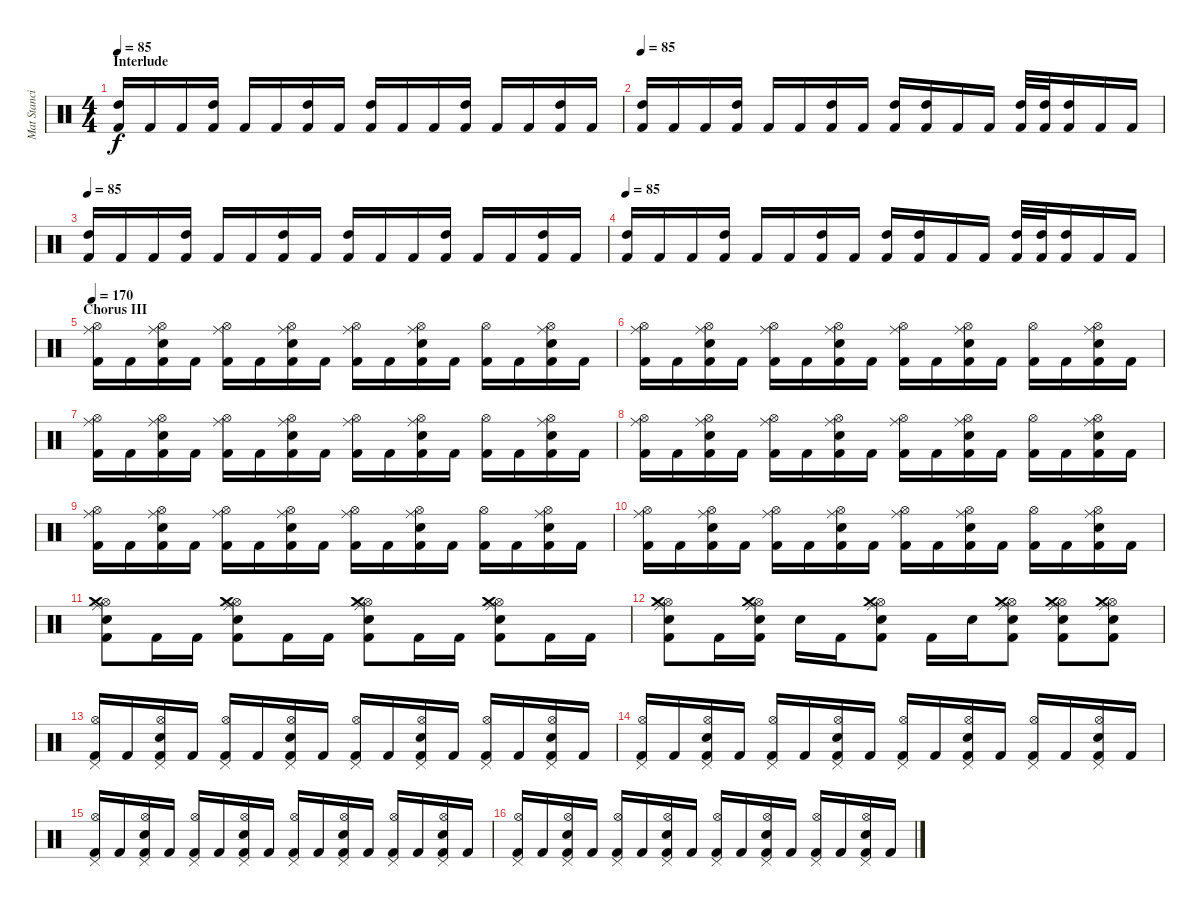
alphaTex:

\track ("Mat Stancioiu" "Mat Stanci") {instrument percussion}
\staff {score}
\articulation defaults
\ts (4 4)
\section ("" "Interlude")
\tempo 85
\clef neutral
\ks c
("High Tom (hit)" "Kick (hit) 2").16{dy f volume 10} "Kick (hit) 2".16 "Kick (hit) 2".16 ("High Tom (hit)" "Kick (hit) 2").16 "Kick (hit) 2".16 "Kick (hit) 2".16 ("High Tom (hit)" "Kick (hit) 2").16 "Kick (hit) 2".16 ("High Tom (hit)" "Kick (hit) 2").16 "Kick (hit) 2".16 "Kick (hit) 2".16 ("High Tom (hit)" "Kick (hit) 2").16 "Kick (hit) 2".16 "Kick (hit) 2".16 ("High Tom (hit)" "Kick (hit) 2").16 "Kick (hit) 2".16 |
\tempo 85
("High Tom (hit)" "Kick (hit) 2").16{volume 10} "Kick (hit) 2".16 "Kick (hit) 2".16 ("High Tom (hit)" "Kick (hit) 2").16 "Kick (hit) 2".16 "Kick (hit) 2".16 ("High Tom (hit)" "Kick (hit) 2").16 "Kick (hit) 2".16 ("High Tom (hit)" "Kick (hit) 2").16 ("High Tom (hit)" "Kick (hit) 2").16 "Kick (hit) 2".16 "Kick (hit) 2".16 ("High Tom (hit)" "Kick (hit) 2").32 ("High Tom (hit)" "Kick (hit) 2").32 ("High Tom (hit)" "Kick (hit) 2").16 "Kick (hit) 2".16 "Kick (hit) 2".16 |
\tempo 85
("High Tom (hit)" "Kick (hit) 2").16 "Kick (hit) 2".16 "Kick (hit) 2".16 ("High Tom (hit)" "Kick (hit) 2").16 "Kick (hit) 2".16 "Kick (hit) 2".16 ("High Tom (hit)" "Kick (hit) 2").16 "Kick (hit) 2".16 ("High Tom (hit)" "Kick (hit) 2").16 "Kick (hit) 2".16 "Kick (hit) 2".16 ("High Tom (hit)" "Kick (hit) 2").16 "Kick (hit) 2".16 "Kick (hit) 2".16 ("High Tom (hit)" "Kick (hit) 2").16 "Kick (hit) 2".16 |
\tempo 85
("High Tom (hit)" "Kick (hit) 2").16 "Kick (hit) 2".16 "Kick (hit) 2".16 ("High Tom (hit)" "Kick (hit) 2").16 "Kick (hit) 2".16 "Kick (hit) 2".16 ("High Tom (hit)" "Kick (hit) 2").16 "Kick (hit) 2".16 ("High Tom (hit)" "Kick (hit) 2").16 ("High Tom (hit)" "Kick (hit) 2").16 "Kick (hit) 2".16 "Kick (hit) 2".16 ("High Tom (hit)" "Kick (hit) 2").32 ("High Tom (hit)" "Kick (hit) 2").32 ("High Tom (hit)" "Kick (hit) 2").16 "Kick (hit) 2".16 "Kick (hit) 2".16 |
\section ("" "Chorus III")
\tempo 170
("Hi-Hat (open)" "Kick (hit) 2" "Ride (middle)").16 "Kick (hit) 2".16 ("Electric Snare (hit)" "Hi-Hat (open)" "Kick (hit) 2" "Ride (middle)").16 "Kick (hit) 2".16 ("Hi-Hat (open)" "Kick (hit) 2" "Ride (middle)").16 "Kick (hit) 2".16 ("Electric Snare (hit)" "Hi-Hat (open)" "Kick (hit) 2" "Ride (middle)").16 "Kick (hit) 2".16 ("Hi-Hat (open)" "Kick (hit) 2" "Ride (middle)").16 "Kick (hit) 2".16 ("Electric Snare (hit)" "Hi-Hat (open)" "Kick (hit) 2" "Ride (middle)").16 "Kick (hit) 2".16 ("Hi-Hat (open)" "Kick (hit) 2").16 "Kick (hit) 2".16 ("Electric Snare (hit)" "Hi-Hat (open)" "Kick (hit) 2" "Ride (middle)").16 "Kick (hit) 2".16 |
("Hi-Hat (open)" "Kick (hit) 2" "Ride (middle)").16 "Kick (hit) 2".16 ("Electric Snare (hit)" "Hi-Hat (open)" "Kick (hit) 2" "Ride (middle)").16 "Kick (hit) 2".16 ("Hi-Hat (open)" "Kick (hit) 2" "Ride (middle)").16 "Kick (hit) 2".16 ("Electric Snare (hit)" "Hi-Hat (open)" "Kick (hit) 2" "Ride (middle)").16 "Kick (hit) 2".16 ("Hi-Hat (open)" "Kick (hit) 2" "Ride (middle)").16 "Kick (hit) 2".16 ("Electric Snare (hit)" "Hi-Hat (open)" "Kick (hit) 2" "Ride (middle)").16 "Kick (hit) 2".16 ("Hi-Hat (open)" "Kick (hit) 2").16 "Kick (hit) 2".16 ("Electric Snare (hit)" "Hi-Hat (open)" "Kick (hit) 2" "Ride (middle)").16 "Kick (hit) 2".16 |
("Hi-Hat (open)" "Kick (hit) 2" "Ride (middle)").16 "Kick (hit) 2".16 ("Electric Snare (hit)" "Hi-Hat (open)" "Kick (hit) 2" "Ride (middle)").16 "Kick (hit) 2".16 ("Hi-Hat (open)" "Kick (hit) 2" "Ride (middle)").16 "Kick (hit) 2".16 ("Electric Snare (hit)" "Hi-Hat (open)" "Kick (hit) 2" "Ride (middle)").16 "Kick (hit) 2".16 ("Hi-Hat (open)" "Kick (hit) 2" "Ride (middle)").16 "Kick (hit) 2".16 ("Electric Snare (hit)" "Hi-Hat (open)" "Kick (hit) 2" "Ride (middle)").16 "Kick (hit) 2".16 ("Hi-Hat (open)" "Kick (hit) 2").16 "Kick (hit) 2".16 ("Electric Snare (hit)" "Hi-Hat (open)" "Kick (hit) 2" "Ride (middle)").16 "Kick (hit) 2".16 |
("Hi-Hat (open)" "Kick (hit) 2" "Ride (middle)").16 "Kick (hit) 2".16 ("Electric Snare (hit)" "Hi-Hat (open)" "Kick (hit) 2" "Ride (middle)").16 "Kick (hit) 2".16 ("Hi-Hat (open)" "Kick (hit) 2" "Ride (middle)").16 "Kick (hit) 2".16 ("Electric Snare (hit)" "Hi-Hat (open)" "Kick (hit) 2" "Ride (middle)").16 "Kick (hit) 2".16 ("Hi-Hat (open)" "Kick (hit) 2" "Ride (middle)").16 "Kick (hit) 2".16 ("Electric Snare (hit)" "Hi-Hat (open)" "Kick (hit) 2" "Ride (middle)").16 "Kick (hit) 2".16 ("Hi-Hat (open)" "Kick (hit) 2").16 "Kick (hit) 2".16 ("Electric Snare (hit)" "Hi-Hat (open)" "Kick (hit) 2" "Ride (middle)").16 "Kick (hit) 2".16 |
("Hi-Hat (open)" "Kick (hit) 2" "Ride (middle)").16 "Kick (hit) 2".16 ("Electric Snare (hit)" "Hi-Hat (open)" "Kick (hit) 2" "Ride (middle)").16 "Kick (hit) 2".16 ("Hi-Hat (open)" "Kick (hit) 2" "Ride (middle)").16 "Kick (hit) 2".16 ("Electric Snare (hit)" "Hi-Hat (open)" "Kick (hit) 2" "Ride (middle)").16 "Kick (hit) 2".16 ("Hi-Hat (open)" "Kick (hit) 2" "Ride (middle)").16 "Kick (hit) 2".16 ("Electric Snare (hit)" "Hi-Hat (open)" "Kick (hit) 2" "Ride (middle)").16 "Kick (hit) 2".16 ("Hi-Hat (open)" "Kick (hit) 2").16 "Kick (hit) 2".16 ("Electric Snare (hit)" "Hi-Hat (open)" "Kick (hit) 2" "Ride (middle)").16 "Kick (hit) 2".16 |
("Hi-Hat (open)" "Kick (hit) 2" "Ride (middle)").16 "Kick (hit) 2".16 ("Electric Snare (hit)" "Hi-Hat (open)" "Kick (hit) 2" "Ride (middle)").16 "Kick (hit) 2".16 ("Hi-Hat (open)" "Kick (hit) 2" "Ride (middle)").16 "Kick (hit) 2".16 ("Electric Snare (hit)" "Hi-Hat (open)" "Kick (hit) 2" "Ride (middle)").16 "Kick (hit) 2".16 ("Hi-Hat (open)" "Kick (hit) 2" "Ride (middle)").16 "Kick (hit) 2".16 ("Electric Snare (hit)" "Hi-Hat (open)" "Kick (hit) 2" "Ride (middle)").16 "Kick (hit) 2".16 ("Hi-Hat (open)" "Kick (hit) 2").16 "Kick (hit) 2".16 ("Electric Snare (hit)" "Hi-Hat (open)" "Kick (hit) 2" "Ride (middle)").16 "Kick (hit) 2".16 |
("Electric Snare (hit)" "Hi-Hat (open)" "Kick (hit) 2" "Crash medium (hit)" "Ride (middle)").8 "Kick (hit) 2".16 "Kick (hit) 2".16 ("Electric Snare (hit)" "Hi-Hat (open)" "Kick (hit) 2" "Crash medium (hit)" "Ride (middle)").8 "Kick (hit) 2".16 "Kick (hit) 2".16 ("Electric Snare (hit)" "Hi-Hat (open)" "Kick (hit) 2" "Crash medium (hit)" "Ride (middle)").8 "Kick (hit) 2".16 "Kick (hit) 2".16 ("Electric Snare (hit)" "Hi-Hat (open)" "Kick (hit) 2" "Crash medium (hit)" "Ride (middle)").8 "Kick (hit) 2".16 "Kick (hit) 2".16 |
("Electric Snare (hit)" "Hi-Hat (open)" "Kick (hit) 2" "Crash medium (hit)" "Ride (middle)").8 "Kick (hit) 2".16 ("Electric Snare (hit)" "Hi-Hat (open)" "Kick (hit) 2" "Crash medium (hit)" "Ride (middle)").16 "Electric Snare (hit)".16 "Kick (hit) 2".16 ("Electric Snare (hit)" "Hi-Hat (open)" "Kick (hit) 2" "Crash medium (hit)" "Ride (middle)").8 "Kick (hit) 2".16 "Electric Snare (hit)".16 ("Electric Snare (hit)" "Hi-Hat (open)" "Kick (hit) 2" "Crash medium (hit)" "Ride (middle)").8 ("Electric Snare (hit)" "Hi-Hat (open)" "Kick (hit) 2" "Crash medium (hit)" "Ride (middle)").8 ("Electric Snare (hit)" "Hi-Hat (open)" "Kick (hit) 2" "Crash medium (hit)" "Ride (middle)").8 |
("Hi-Hat (open)" "Kick (hit) 2" "Pedal Hi-Hat (hit)").16 "Kick (hit) 2".16 ("Electric Snare (hit)" "Hi-Hat (open)" "Kick (hit) 2" "Pedal Hi-Hat (hit)").16 "Kick (hit) 2".16 ("Hi-Hat (open)" "Kick (hit) 2" "Pedal Hi-Hat (hit)").16 "Kick (hit) 2".16 ("Electric Snare (hit)" "Hi-Hat (open)" "Kick (hit) 2" "Pedal Hi-Hat (hit)").16 "Kick (hit) 2".16 ("Hi-Hat (open)" "Kick (hit) 2" "Pedal Hi-Hat (hit)").16 "Kick (hit) 2".16 ("Electric Snare (hit)" "Hi-Hat (open)" "Kick (hit) 2" "Pedal Hi-Hat (hit)").16 "Kick (hit) 2".16 ("Hi-Hat (open)" "Kick (hit) 2" "Pedal Hi-Hat (hit)").16 "Kick (hit) 2".16 ("Electric Snare (hit)" "Hi-Hat (open)" "Kick (hit) 2" "Pedal Hi-Hat (hit)").16 "Kick (hit) 2".16 |
("Hi-Hat (open)" "Kick (hit) 2" "Pedal Hi-Hat (hit)").16 "Kick (hit) 2".16 ("Electric Snare (hit)" "Hi-Hat (open)" "Kick (hit) 2" "Pedal Hi-Hat (hit)").16 "Kick (hit) 2".16 ("Hi-Hat (open)" "Kick (hit) 2" "Pedal Hi-Hat (hit)").16 "Kick (hit) 2".16 ("Electric Snare (hit)" "Hi-Hat (open)" "Kick (hit) 2" "Pedal Hi-Hat (hit)").16 "Kick (hit) 2".16 ("Hi-Hat (open)" "Kick (hit) 2" "Pedal Hi-Hat (hit)").16 "Kick (hit) 2".16 ("Electric Snare (hit)" "Hi-Hat (open)" "Kick (hit) 2" "Pedal Hi-Hat (hit)").16 "Kick (hit) 2".16 ("Hi-Hat (open)" "Kick (hit) 2" "Pedal Hi-Hat (hit)").16 "Kick (hit) 2".16 ("Electric Snare (hit)" "Hi-Hat (open)" "Kick (hit) 2" "Pedal Hi-Hat (hit)").16 "Kick (hit) 2".16 |
("Hi-Hat (open)" "Kick (hit) 2" "Pedal Hi-Hat (hit)").16 "Kick (hit) 2".16 ("Electric Snare (hit)" "Hi-Hat (open)" "Kick (hit) 2" "Pedal Hi-Hat (hit)").16 "Kick (hit) 2".16 ("Hi-Hat (open)" "Kick (hit) 2" "Pedal Hi-Hat (hit)").16 "Kick (hit) 2".16 ("Electric Snare (hit)" "Hi-Hat (open)" "Kick (hit) 2" "Pedal Hi-Hat (hit)").16 "Kick (hit) 2".16 ("Hi-Hat (open)" "Kick (hit) 2" "Pedal Hi-Hat (hit)").16 "Kick (hit) 2".16 ("Electric Snare (hit)" "Hi-Hat (open)" "Kick (hit) 2" "Pedal Hi-Hat (hit)").16 "Kick (hit) 2".16 ("Hi-Hat (open)" "Kick (hit) 2" "Pedal Hi-Hat (hit)").16 "Kick (hit) 2".16 ("Electric Snare (hit)" "Hi-Hat (open)" "Kick (hit) 2" "Pedal Hi-Hat (hit)").16 "Kick (hit) 2".16 |
("Hi-Hat (open)" "Kick (hit) 2" "Pedal Hi-Hat (hit)").16 "Kick (hit) 2".16 ("Electric Snare (hit)" "Hi-Hat (open)" "Kick (hit) 2" "Pedal Hi-Hat (hit)").16 "Kick (hit) 2".16 ("Hi-Hat (open)" "Kick (hit) 2" "Pedal Hi-Hat (hit)").16 "Kick (hit) 2".16 ("Electric Snare (hit)" "Hi-Hat (open)" "Kick (hit) 2" "Pedal Hi-Hat (hit)").16 "Kick (hit) 2".16 ("Hi-Hat (open)" "Kick (hit) 2" "Pedal Hi-Hat (hit)").16 "Kick (hit) 2".16 ("Electric Snare (hit)" "Hi-Hat (open)" "Kick (hit) 2" "Pedal Hi-Hat (hit)").16 "Kick (hit) 2".16 ("Hi-Hat (open)" "Kick (hit) 2" "Pedal Hi-Hat (hit)").16 "Kick (hit) 2".16 ("Electric Snare (hit)" "Hi-Hat (open)" "Kick (hit) 2" "Pedal Hi-Hat (hit)").16 "Kick (hit) 2".16
